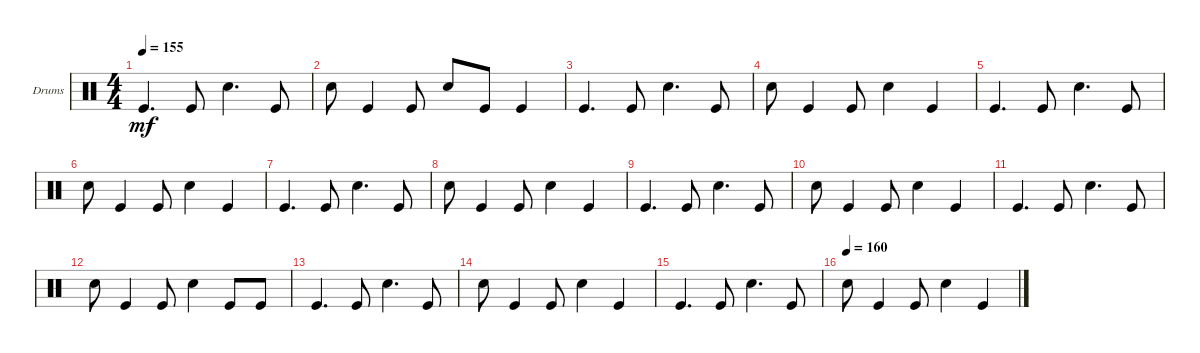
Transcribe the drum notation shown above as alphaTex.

\defaultSystemsLayout 4
\bracketExtendMode groupsimilarinstruments
\firstSystemTrackNameOrientation horizontal
\otherSystemsTrackNameOrientation horizontal
\track ("Drumkit" "Drums") {instrument percussion}
\staff {score}
\articulation defaults
\ts (4 4)
\tempo 155
\clef neutral
\scale
0.333333
\ks c "Kick (hit)".4{d dy mf} "Kick (hit)".8 "Snare (hit) 2".4{d} "Kick (hit)".8
|
\scale
0.333333 "Snare (hit) 2".8 "Kick (hit)".4 "Kick (hit)".8 "Snare (hit) 2".8 "Kick (hit)".8 "Kick (hit)".4 |
\scale
0.333333 "Kick (hit)".4{d} "Kick (hit)".8 "Snare (hit) 2".4{d} "Kick (hit)".8 |
\scale
0.333333 "Snare (hit) 2".8 "Kick (hit)".4 "Kick (hit)".8 "Snare (hit) 2".4 "Kick (hit)".4 |
\scale
0.333333 "Kick (hit)".4{d} "Kick (hit)".8 "Snare (hit) 2".4{d} "Kick (hit)".8 |
\scale
0.333333 "Snare (hit) 2".8 "Kick (hit)".4 "Kick (hit)".8 "Snare (hit) 2".4 "Kick (hit)".4 |
\scale
0.333333 "Kick (hit)".4{d} "Kick (hit)".8 "Snare (hit) 2".4{d} "Kick (hit)".8 |
\scale
0.333333 "Snare (hit) 2".8 "Kick (hit)".4 "Kick (hit)".8 "Snare (hit) 2".4 "Kick (hit)".4 |
\scale
0.333333 "Kick (hit)".4{d} "Kick (hit)".8 "Snare (hit) 2".4{d} "Kick (hit)".8 |
\scale
0.333333 "Snare (hit) 2".8 "Kick (hit)".4 "Kick (hit)".8 "Snare (hit) 2".4 "Kick (hit)".4 |
\scale
0.333333 "Kick (hit)".4{d} "Kick (hit)".8 "Snare (hit) 2".4{d} "Kick (hit)".8 |
\scale
0.333333 "Snare (hit) 2".8 "Kick (hit)".4 "Kick (hit)".8 "Snare (hit) 2".4 "Kick (hit)".8 "Kick (hit)".8 |
\scale
0.333333 "Kick (hit)".4{d} "Kick (hit)".8 "Snare (hit) 2".4{d} "Kick (hit)".8 |
\scale
0.333333 "Snare (hit) 2".8 "Kick (hit)".4 "Kick (hit)".8 "Snare (hit) 2".4 "Kick (hit)".4 |
\scale
0.333333 "Kick (hit)".4{d} "Kick (hit)".8 "Snare (hit) 2".4{d} "Kick (hit)".8 |
\tempo 160
\scale
0.333333 "Snare (hit) 2".8 "Kick (hit)".4 "Kick (hit)".8 "Snare (hit) 2".4 "Kick (hit)".4
